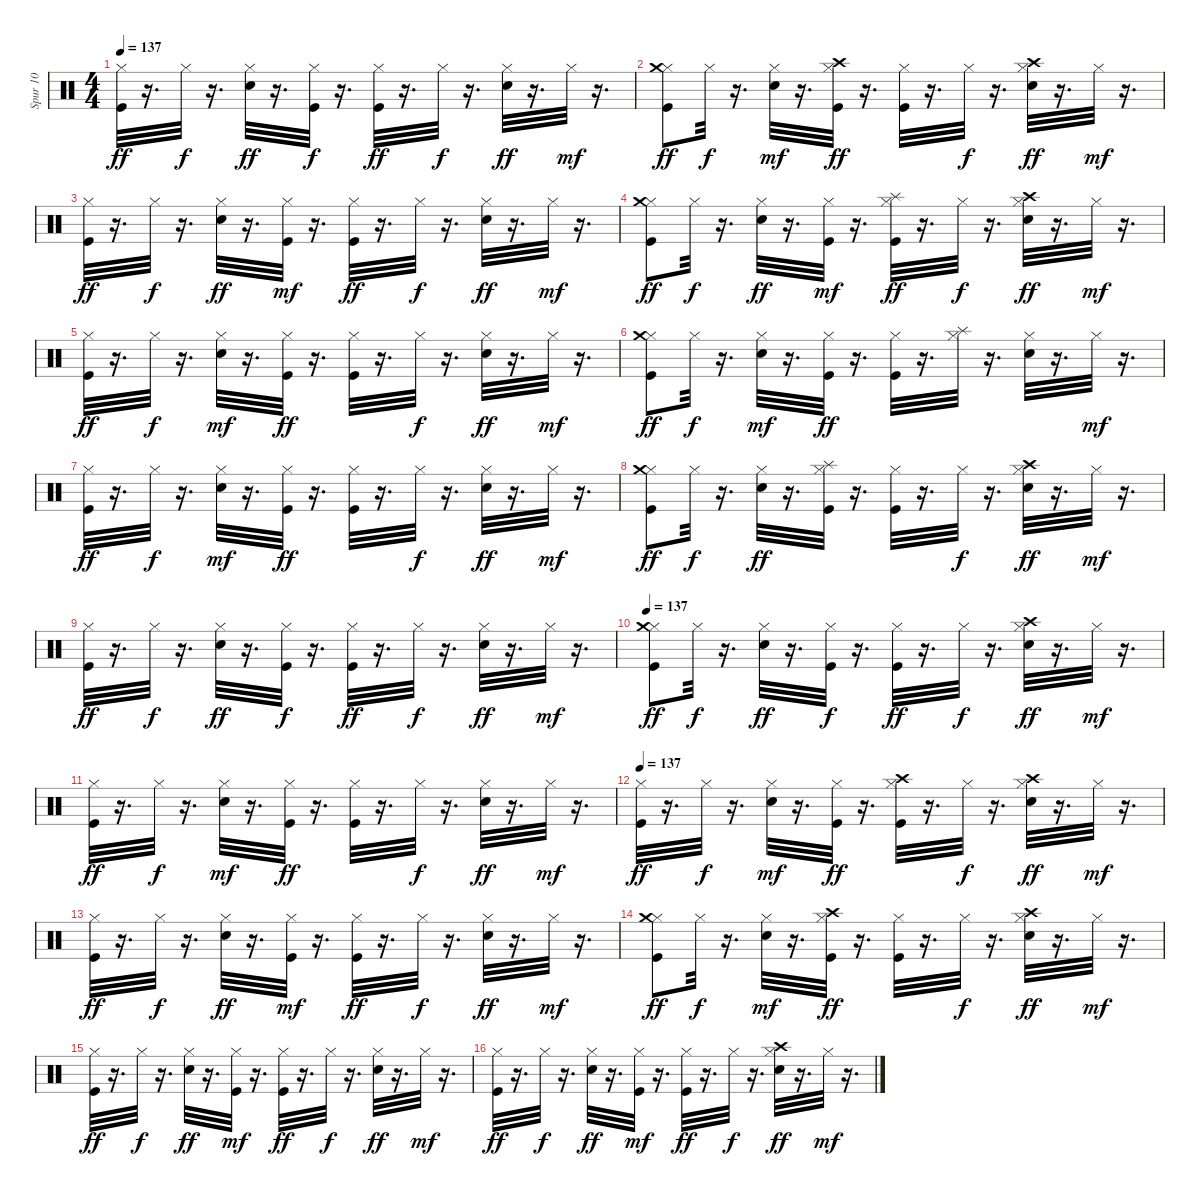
\track ("Spur 10" "Spur 10") {instrument percussion}
\staff {score}
\articulation defaults
\ts (4 4)
\tempo 137
\clef neutral
\ks c
("Kick (hit)" "Hi-Hat (closed)").32{dy ff} r.16{d} "Hi-Hat (closed)".32{dy f} r.16{d} ("Electric Snare (hit)" "Hi-Hat (closed)").32{dy ff} r.16{d} ("Kick (hit)" "Hi-Hat (closed)").32{dy f} r.16{d} ("Kick (hit)" "Hi-Hat (closed)").32{dy ff} r.16{d} "Hi-Hat (closed)".32{dy f} r.16{d} ("Electric Snare (hit)" "Hi-Hat (closed)").32{dy ff} r.16{d} "Hi-Hat (closed)".32{dy mf} r.16{d} |
("Kick (hit)" "Hi-Hat (closed)" "Crash medium (hit)").8{dy ff} "Hi-Hat (closed)".32{dy f} r.16{d} ("Electric Snare (hit)" "Hi-Hat (closed)").32{dy mf} r.16{d} ("Crash high (hit)" "Kick (hit)" "Hi-Hat (closed)").32{dy ff} r.16{d} ("Kick (hit)" "Hi-Hat (closed)").32 r.16{d} "Hi-Hat (closed)".32{dy f} r.16{d} ("Crash high (hit)" "Electric Snare (hit)" "Hi-Hat (closed)").32{dy ff} r.16{d} "Hi-Hat (closed)".32{dy mf} r.16{d} |
("Kick (hit)" "Hi-Hat (closed)").32{dy ff} r.16{d} "Hi-Hat (closed)".32{dy f} r.16{d} ("Electric Snare (hit)" "Hi-Hat (closed)").32{dy ff} r.16{d} ("Kick (hit)" "Hi-Hat (closed)").32{dy mf} r.16{d} ("Kick (hit)" "Hi-Hat (closed)").32{dy ff} r.16{d} "Hi-Hat (closed)".32{dy f} r.16{d} ("Electric Snare (hit)" "Hi-Hat (closed)").32{dy ff} r.16{d} "Hi-Hat (closed)".32{dy mf} r.16{d} |
("Kick (hit)" "Hi-Hat (closed)" "Crash medium (hit)").8{dy ff} "Hi-Hat (closed)".32{dy f} r.16{d} ("Electric Snare (hit)" "Hi-Hat (closed)").32{dy ff} r.16{d} ("Kick (hit)" "Hi-Hat (closed)").32{dy mf} r.16{d} ("Kick (hit)" "Hi-Hat (closed)" "Splash (hit)").32{dy ff} r.16{d} "Hi-Hat (closed)".32{dy f} r.16{d} ("Crash high (hit)" "Electric Snare (hit)" "Hi-Hat (closed)").32{dy ff} r.16{d} "Hi-Hat (closed)".32{dy mf} r.16{d} |
("Kick (hit)" "Hi-Hat (closed)").32{dy ff} r.16{d} "Hi-Hat (closed)".32{dy f} r.16{d} ("Electric Snare (hit)" "Hi-Hat (closed)").32{dy mf} r.16{d} ("Kick (hit)" "Hi-Hat (closed)").32{dy ff} r.16{d} ("Kick (hit)" "Hi-Hat (closed)").32 r.16{d} "Hi-Hat (closed)".32{dy f} r.16{d} ("Electric Snare (hit)" "Hi-Hat (closed)").32{dy ff} r.16{d} "Hi-Hat (closed)".32{dy mf} r.16{d} |
("Kick (hit)" "Hi-Hat (closed)" "Crash medium (hit)").8{dy ff} "Hi-Hat (closed)".32{dy f} r.16{d} ("Electric Snare (hit)" "Hi-Hat (closed)").32{dy mf} r.16{d} ("Kick (hit)" "Hi-Hat (closed)").32{dy ff} r.16{d} ("Kick (hit)" "Hi-Hat (closed)").32 r.16{d} ("Hi-Hat (closed)" "Splash (hit)").32 r.16{d} ("Electric Snare (hit)" "Hi-Hat (closed)").32 r.16{d} "Hi-Hat (closed)".32{dy mf} r.16{d} |
("Kick (hit)" "Hi-Hat (closed)").32{dy ff} r.16{d} "Hi-Hat (closed)".32{dy f} r.16{d} ("Electric Snare (hit)" "Hi-Hat (closed)").32{dy mf} r.16{d} ("Kick (hit)" "Hi-Hat (closed)").32{dy ff} r.16{d} ("Kick (hit)" "Hi-Hat (closed)").32 r.16{d} "Hi-Hat (closed)".32{dy f} r.16{d} ("Electric Snare (hit)" "Hi-Hat (closed)").32{dy ff} r.16{d} "Hi-Hat (closed)".32{dy mf} r.16{d} |
("Kick (hit)" "Hi-Hat (closed)" "Crash medium (hit)").8{dy ff} "Hi-Hat (closed)".32{dy f} r.16{d} ("Electric Snare (hit)" "Hi-Hat (closed)").32{dy ff} r.16{d} ("Kick (hit)" "Hi-Hat (closed)" "Splash (hit)").32 r.16{d} ("Kick (hit)" "Hi-Hat (closed)").32 r.16{d} "Hi-Hat (closed)".32{dy f} r.16{d} ("Crash high (hit)" "Electric Snare (hit)" "Hi-Hat (closed)").32{dy ff} r.16{d} "Hi-Hat (closed)".32{dy mf} r.16{d} |
("Kick (hit)" "Hi-Hat (closed)").32{dy ff} r.16{d} "Hi-Hat (closed)".32{dy f} r.16{d} ("Electric Snare (hit)" "Hi-Hat (closed)").32{dy ff} r.16{d} ("Kick (hit)" "Hi-Hat (closed)").32{dy f} r.16{d} ("Kick (hit)" "Hi-Hat (closed)").32{dy ff} r.16{d} "Hi-Hat (closed)".32{dy f} r.16{d} ("Electric Snare (hit)" "Hi-Hat (closed)").32{dy ff} r.16{d} "Hi-Hat (closed)".32{dy mf} r.16{d} |
\tempo 137
("Kick (hit)" "Hi-Hat (closed)" "Crash medium (hit)").8{dy ff} "Hi-Hat (closed)".32{dy f} r.16{d} ("Electric Snare (hit)" "Hi-Hat (closed)").32{dy ff} r.16{d} ("Kick (hit)" "Hi-Hat (closed)").32{dy f} r.16{d} ("Kick (hit)" "Hi-Hat (closed)").32{dy ff} r.16{d} "Hi-Hat (closed)".32{dy f} r.16{d} ("Crash high (hit)" "Electric Snare (hit)" "Hi-Hat (closed)").32{dy ff} r.16{d} "Hi-Hat (closed)".32{dy mf} r.16{d} |
("Kick (hit)" "Hi-Hat (closed)").32{dy ff} r.16{d} "Hi-Hat (closed)".32{dy f} r.16{d} ("Electric Snare (hit)" "Hi-Hat (closed)").32{dy mf} r.16{d} ("Kick (hit)" "Hi-Hat (closed)").32{dy ff} r.16{d} ("Kick (hit)" "Hi-Hat (closed)").32 r.16{d} "Hi-Hat (closed)".32{dy f} r.16{d} ("Electric Snare (hit)" "Hi-Hat (closed)").32{dy ff} r.16{d} "Hi-Hat (closed)".32{dy mf} r.16{d} |
\tempo 137
("Kick (hit)" "Hi-Hat (closed)").32{dy ff} r.16{d} "Hi-Hat (closed)".32{dy f} r.16{d} ("Electric Snare (hit)" "Hi-Hat (closed)").32{dy mf} r.16{d} ("Kick (hit)" "Hi-Hat (closed)").32{dy ff} r.16{d} ("Crash high (hit)" "Kick (hit)" "Hi-Hat (closed)").32 r.16{d} "Hi-Hat (closed)".32{dy f} r.16{d} ("Crash high (hit)" "Electric Snare (hit)" "Hi-Hat (closed)").32{dy ff} r.16{d} "Hi-Hat (closed)".32{dy mf} r.16{d} |
("Kick (hit)" "Hi-Hat (closed)").32{dy ff} r.16{d} "Hi-Hat (closed)".32{dy f} r.16{d} ("Electric Snare (hit)" "Hi-Hat (closed)").32{dy ff} r.16{d} ("Kick (hit)" "Hi-Hat (closed)").32{dy mf} r.16{d} ("Kick (hit)" "Hi-Hat (closed)").32{dy ff} r.16{d} "Hi-Hat (closed)".32{dy f} r.16{d} ("Electric Snare (hit)" "Hi-Hat (closed)").32{dy ff} r.16{d} "Hi-Hat (closed)".32{dy mf} r.16{d} |
("Kick (hit)" "Hi-Hat (closed)" "Crash medium (hit)").8{dy ff} "Hi-Hat (closed)".32{dy f} r.16{d} ("Electric Snare (hit)" "Hi-Hat (closed)").32{dy mf} r.16{d} ("Crash high (hit)" "Kick (hit)" "Hi-Hat (closed)").32{dy ff} r.16{d} ("Kick (hit)" "Hi-Hat (closed)").32 r.16{d} "Hi-Hat (closed)".32{dy f} r.16{d} ("Crash high (hit)" "Electric Snare (hit)" "Hi-Hat (closed)").32{dy ff} r.16{d} "Hi-Hat (closed)".32{dy mf} r.16{d} |
("Kick (hit)" "Hi-Hat (closed)").32{dy ff} r.16{d} "Hi-Hat (closed)".32{dy f} r.16{d} ("Electric Snare (hit)" "Hi-Hat (closed)").32{dy ff} r.16{d} ("Kick (hit)" "Hi-Hat (closed)").32{dy mf} r.16{d} ("Kick (hit)" "Hi-Hat (closed)").32{dy ff} r.16{d} "Hi-Hat (closed)".32{dy f} r.16{d} ("Electric Snare (hit)" "Hi-Hat (closed)").32{dy ff} r.16{d} "Hi-Hat (closed)".32{dy mf} r.16{d} |
("Kick (hit)" "Hi-Hat (closed)").32{dy ff} r.16{d} "Hi-Hat (closed)".32{dy f} r.16{d} ("Electric Snare (hit)" "Hi-Hat (closed)").32{dy ff} r.16{d} ("Kick (hit)" "Hi-Hat (closed)").32{dy mf} r.16{d} ("Kick (hit)" "Hi-Hat (closed)").32{dy ff} r.16{d} "Hi-Hat (closed)".32{dy f} r.16{d} ("Crash high (hit)" "Electric Snare (hit)" "Hi-Hat (closed)").32{dy ff} r.16{d} "Hi-Hat (closed)".32{dy mf} r.16{d}
